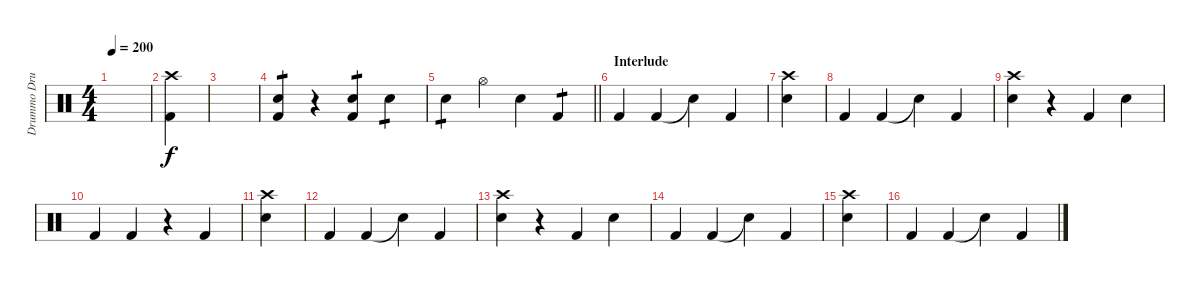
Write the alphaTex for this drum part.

\track ("Drummo Drummer" "Drummo Dru") {instrument percussion}
\staff {score}
\articulation defaults
\ts (4 4)
\tempo 200
\clef neutral
\ks c
|
("Crash high (hit)" "Kick (hit) 2").4 |
|
("Electric Snare (hit)" "Kick (hit) 2").4{tp 1} r.4 ("Electric Snare (hit)" "Kick (hit) 2").4{tp 1} "Electric Snare (hit)".4{tp 1} |
\barLineRight lightlight "Electric Snare (hit)".4{tp 1} "Hi-Hat (open)".4 "Electric Snare (hit)".4 "Kick (hit) 2".4{tp 1}
|
\section ("" "Interlude")
"Kick (hit) 2".4 "Kick (hit) 2".4 "Snare (hit)"{t}.4 "Kick (hit) 2".4 |
("Crash high (hit)" "Electric Snare (hit)").4 |
"Kick (hit) 2".4 "Kick (hit) 2".4 "Snare (hit)"{t}.4 "Kick (hit) 2".4 |
("Crash high (hit)" "Electric Snare (hit)").4 r.4 "Kick (hit) 2".4 "Electric Snare (hit)".4 |
"Kick (hit) 2".4 "Kick (hit) 2".4 r.4 "Kick (hit) 2".4 |
("Crash high (hit)" "Electric Snare (hit)").4 |
"Kick (hit) 2".4 "Kick (hit) 2".4 "Snare (hit)"{t}.4 "Kick (hit) 2".4 |
("Crash high (hit)" "Electric Snare (hit)").4 r.4 "Kick (hit) 2".4 "Electric Snare (hit)".4 |
"Kick (hit) 2".4 "Kick (hit) 2".4 "Snare (hit)"{t}.4 "Kick (hit) 2".4 |
("Crash high (hit)" "Electric Snare (hit)").4 |
"Kick (hit) 2".4 "Kick (hit) 2".4 "Snare (hit)"{t}.4 "Kick (hit) 2".4
